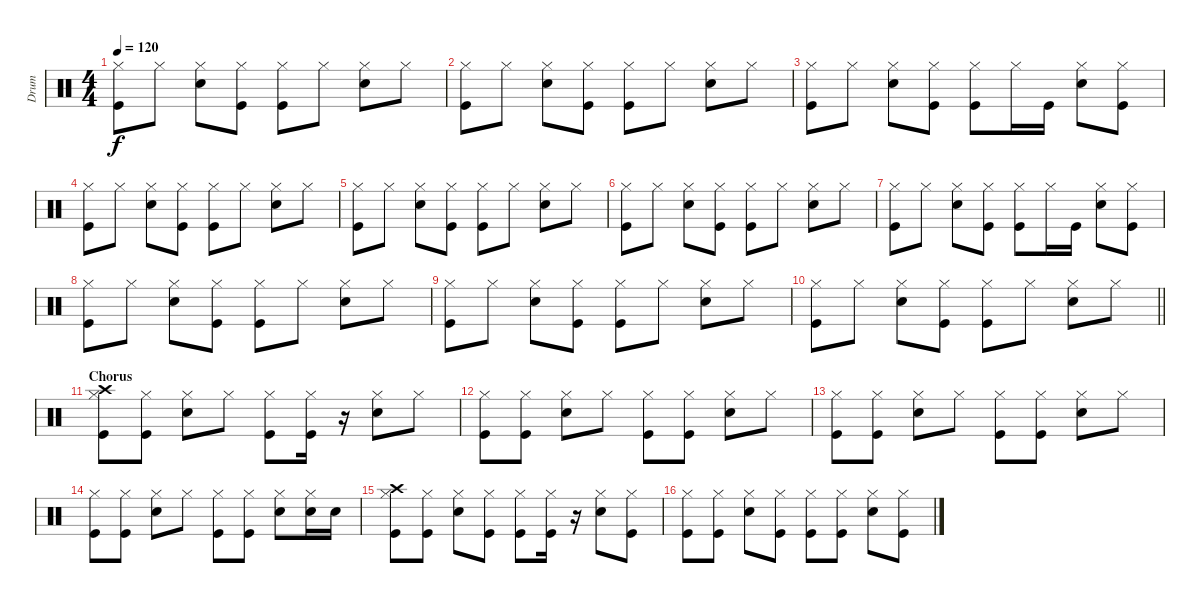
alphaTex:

\track ("Drum" "Drum") {instrument percussion}
\staff {score}
\articulation defaults
\ts (4 4)
\tempo 120
\clef neutral
\ks c
("Hi-Hat (closed)" "Kick (hit)").8{dy f} "Hi-Hat (closed)".8 ("Hi-Hat (closed)" "Snare (hit) 2").8 ("Hi-Hat (closed)" "Kick (hit)").8 ("Hi-Hat (closed)" "Kick (hit)").8 "Hi-Hat (closed)".8 ("Hi-Hat (closed)" "Snare (hit) 2").8 "Hi-Hat (closed)".8 |
("Hi-Hat (closed)" "Kick (hit)").8 "Hi-Hat (closed)".8 ("Hi-Hat (closed)" "Snare (hit) 2").8 ("Hi-Hat (closed)" "Kick (hit)").8 ("Hi-Hat (closed)" "Kick (hit)").8 "Hi-Hat (closed)".8 ("Hi-Hat (closed)" "Snare (hit) 2").8 "Hi-Hat (closed)".8 |
("Hi-Hat (closed)" "Kick (hit)").8 "Hi-Hat (closed)".8 ("Hi-Hat (closed)" "Snare (hit) 2").8 ("Hi-Hat (closed)" "Kick (hit)").8 ("Hi-Hat (closed)" "Kick (hit)").8 "Hi-Hat (closed)".16 "Kick (hit)".16 ("Hi-Hat (closed)" "Snare (hit) 2").8 ("Hi-Hat (closed)" "Kick (hit)").8 |
("Hi-Hat (closed)" "Kick (hit)").8 "Hi-Hat (closed)".8 ("Hi-Hat (closed)" "Snare (hit) 2").8 ("Hi-Hat (closed)" "Kick (hit)").8 ("Hi-Hat (closed)" "Kick (hit)").8 "Hi-Hat (closed)".8 ("Hi-Hat (closed)" "Snare (hit) 2").8 "Hi-Hat (closed)".8 |
("Hi-Hat (closed)" "Kick (hit)").8 "Hi-Hat (closed)".8 ("Hi-Hat (closed)" "Snare (hit) 2").8 ("Hi-Hat (closed)" "Kick (hit)").8 ("Hi-Hat (closed)" "Kick (hit)").8 "Hi-Hat (closed)".8 ("Hi-Hat (closed)" "Snare (hit) 2").8 "Hi-Hat (closed)".8 |
("Hi-Hat (closed)" "Kick (hit)").8 "Hi-Hat (closed)".8 ("Hi-Hat (closed)" "Snare (hit) 2").8 ("Hi-Hat (closed)" "Kick (hit)").8 ("Hi-Hat (closed)" "Kick (hit)").8 "Hi-Hat (closed)".8 ("Hi-Hat (closed)" "Snare (hit) 2").8 "Hi-Hat (closed)".8 |
("Hi-Hat (closed)" "Kick (hit)").8 "Hi-Hat (closed)".8 ("Hi-Hat (closed)" "Snare (hit) 2").8 ("Hi-Hat (closed)" "Kick (hit)").8 ("Hi-Hat (closed)" "Kick (hit)").8 "Hi-Hat (closed)".16 "Kick (hit)".16 ("Hi-Hat (closed)" "Snare (hit) 2").8 ("Hi-Hat (closed)" "Kick (hit)").8 |
("Hi-Hat (closed)" "Kick (hit)").8 "Hi-Hat (closed)".8 ("Hi-Hat (closed)" "Snare (hit) 2").8 ("Hi-Hat (closed)" "Kick (hit)").8 ("Hi-Hat (closed)" "Kick (hit)").8 "Hi-Hat (closed)".8 ("Hi-Hat (closed)" "Snare (hit) 2").8 "Hi-Hat (closed)".8 |
("Hi-Hat (closed)" "Kick (hit)").8 "Hi-Hat (closed)".8 ("Hi-Hat (closed)" "Snare (hit) 2").8 ("Hi-Hat (closed)" "Kick (hit)").8 ("Hi-Hat (closed)" "Kick (hit)").8 "Hi-Hat (closed)".8 ("Hi-Hat (closed)" "Snare (hit) 2").8 "Hi-Hat (closed)".8 |
\barLineRight lightlight
("Hi-Hat (closed)" "Kick (hit)").8 "Hi-Hat (closed)".8 ("Hi-Hat (closed)" "Snare (hit) 2").8 ("Hi-Hat (closed)" "Kick (hit)").8 ("Hi-Hat (closed)" "Kick (hit)").8 "Hi-Hat (closed)".8 ("Hi-Hat (closed)" "Snare (hit) 2").8 "Hi-Hat (closed)".8 |
\section ("" "Chorus")
("Hi-Hat (closed)" "Crash high (hit)" "Kick (hit)").8 ("Hi-Hat (closed)" "Kick (hit)").8 ("Hi-Hat (closed)" "Snare (hit) 2").8 "Hi-Hat (closed)".8 ("Hi-Hat (closed)" "Kick (hit)").8 ("Hi-Hat (closed)" "Kick (hit)").16 r.16 ("Hi-Hat (closed)" "Snare (hit) 2").8 "Hi-Hat (closed)".8 |
("Hi-Hat (closed)" "Kick (hit)").8 ("Hi-Hat (closed)" "Kick (hit)").8 ("Hi-Hat (closed)" "Snare (hit) 2").8 "Hi-Hat (closed)".8 ("Hi-Hat (closed)" "Kick (hit)").8 ("Hi-Hat (closed)" "Kick (hit)").8 ("Hi-Hat (closed)" "Snare (hit) 2").8 "Hi-Hat (closed)".8 |
("Hi-Hat (closed)" "Kick (hit)").8 ("Hi-Hat (closed)" "Kick (hit)").8 ("Hi-Hat (closed)" "Snare (hit) 2").8 "Hi-Hat (closed)".8 ("Hi-Hat (closed)" "Kick (hit)").8 ("Hi-Hat (closed)" "Kick (hit)").8 ("Hi-Hat (closed)" "Snare (hit) 2").8 "Hi-Hat (closed)".8 |
("Hi-Hat (closed)" "Kick (hit)").8 ("Hi-Hat (closed)" "Kick (hit)").8 ("Hi-Hat (closed)" "Snare (hit) 2").8 "Hi-Hat (closed)".8 ("Hi-Hat (closed)" "Kick (hit)").8 ("Hi-Hat (closed)" "Kick (hit)").8 ("Hi-Hat (closed)" "Snare (hit) 2").8 ("Hi-Hat (closed)" "Snare (hit) 2").16 "Snare (hit) 2".16 |
("Hi-Hat (closed)" "Crash high (hit)" "Kick (hit)").8 ("Hi-Hat (closed)" "Kick (hit)").8 ("Hi-Hat (closed)" "Snare (hit) 2").8 ("Hi-Hat (closed)" "Kick (hit)").8 ("Hi-Hat (closed)" "Kick (hit)").8 ("Hi-Hat (closed)" "Kick (hit)").16 r.16 ("Hi-Hat (closed)" "Snare (hit) 2").8 ("Hi-Hat (closed)" "Kick (hit)").8 |
("Hi-Hat (closed)" "Kick (hit)").8 ("Hi-Hat (closed)" "Kick (hit)").8 ("Hi-Hat (closed)" "Snare (hit) 2").8 ("Hi-Hat (closed)" "Kick (hit)").8 ("Hi-Hat (closed)" "Kick (hit)").8 ("Hi-Hat (closed)" "Kick (hit)").8 ("Hi-Hat (closed)" "Snare (hit) 2").8 ("Hi-Hat (closed)" "Kick (hit)").8
